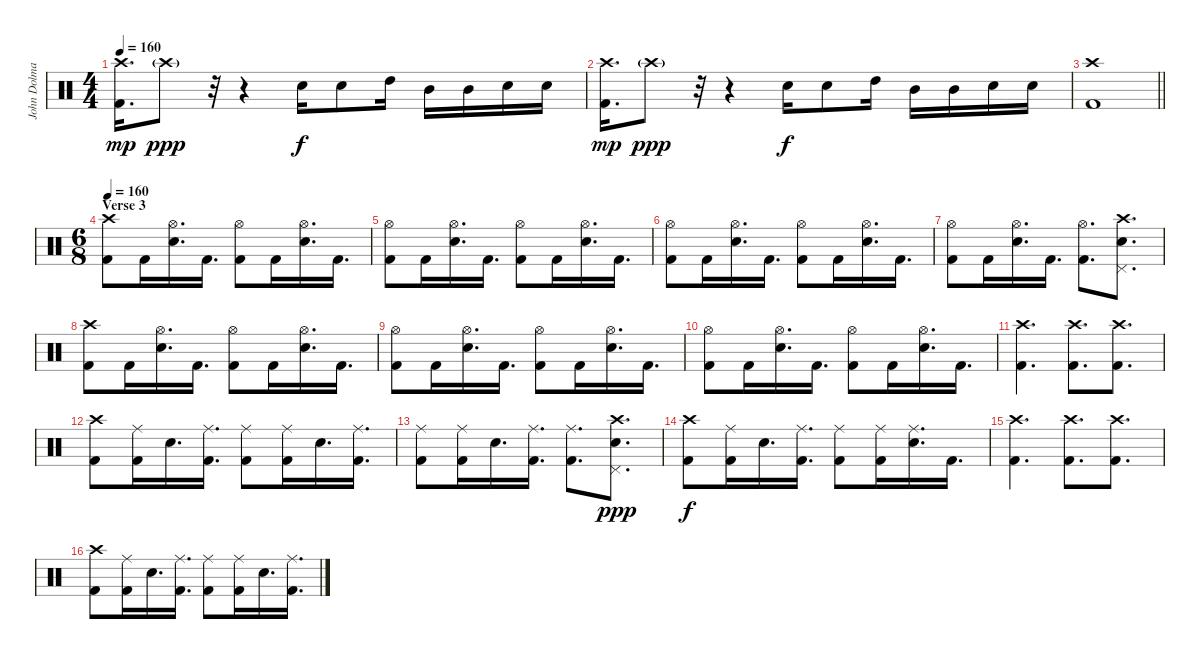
\track ("John Dolmayan" "John Dolma") {instrument percussion}
\staff {score}
\articulation defaults
\ts (4 4)
\tempo 160
\clef neutral
\ks c
("Crash high (hit)" "Kick (hit) 2").16{d dy mp} "Crash high (hit)"{g}.8{dy ppp} r.32 r.4 "Electric Snare (hit)".16{dy f} "Electric Snare (hit)".8 "High Tom (hit)".16 "Mid Tom (hit)".16 "Mid Tom (hit)".16 "Electric Snare (hit)".16 "Electric Snare (hit)".16 |
("Crash high (hit)" "Kick (hit) 2").16{d dy mp} "Crash high (hit)"{g}.8{dy ppp} r.32 r.4 "Electric Snare (hit)".16{dy f} "Electric Snare (hit)".8 "High Tom (hit)".16 "Mid Tom (hit)".16 "Mid Tom (hit)".16 "Electric Snare (hit)".16 "Electric Snare (hit)".16 |
\barLineRight lightlight
("Crash high (hit)" "Kick (hit) 2").1 |
\ts (6 8)
\section ("" "Verse 3")
\tempo 160
("Crash high (hit)" "Kick (hit) 2").8{volume 13} "Kick (hit) 2".16 ("Hi-Hat (open)" "Electric Snare (hit)").16{d} "Kick (hit) 2".16{d} ("Hi-Hat (open)" "Kick (hit) 2").8 "Kick (hit) 2".16 ("Hi-Hat (open)" "Electric Snare (hit)").16{d} "Kick (hit) 2".16{d} |
("Hi-Hat (open)" "Kick (hit) 2").8 "Kick (hit) 2".16 ("Hi-Hat (open)" "Electric Snare (hit)").16{d} "Kick (hit) 2".16{d} ("Hi-Hat (open)" "Kick (hit) 2").8 "Kick (hit) 2".16 ("Hi-Hat (open)" "Electric Snare (hit)").16{d} "Kick (hit) 2".16{d} |
("Hi-Hat (open)" "Kick (hit) 2").8 "Kick (hit) 2".16 ("Hi-Hat (open)" "Electric Snare (hit)").16{d} "Kick (hit) 2".16{d} ("Hi-Hat (open)" "Kick (hit) 2").8 "Kick (hit) 2".16 ("Hi-Hat (open)" "Electric Snare (hit)").16{d} "Kick (hit) 2".16{d} |
("Hi-Hat (open)" "Kick (hit) 2").8 "Kick (hit) 2".16 ("Hi-Hat (open)" "Electric Snare (hit)").16{d} "Kick (hit) 2".16{d} ("Hi-Hat (open)" "Kick (hit) 2").8{d} ("Crash high (hit)" "Pedal Hi-Hat (hit)" "Electric Snare (hit)").8{d} |
("Crash high (hit)" "Kick (hit) 2").8 "Kick (hit) 2".16 ("Hi-Hat (open)" "Electric Snare (hit)").16{d} "Kick (hit) 2".16{d} ("Hi-Hat (open)" "Kick (hit) 2").8 "Kick (hit) 2".16 ("Hi-Hat (open)" "Electric Snare (hit)").16{d} "Kick (hit) 2".16{d} |
("Hi-Hat (open)" "Kick (hit) 2").8 "Kick (hit) 2".16 ("Hi-Hat (open)" "Electric Snare (hit)").16{d} "Kick (hit) 2".16{d} ("Hi-Hat (open)" "Kick (hit) 2").8 "Kick (hit) 2".16 ("Hi-Hat (open)" "Electric Snare (hit)").16{d} "Kick (hit) 2".16{d} |
("Hi-Hat (open)" "Kick (hit) 2").8 "Kick (hit) 2".16 ("Hi-Hat (open)" "Electric Snare (hit)").16{d} "Kick (hit) 2".16{d} ("Hi-Hat (open)" "Kick (hit) 2").8 "Kick (hit) 2".16 ("Hi-Hat (open)" "Electric Snare (hit)").16{d} "Kick (hit) 2".16{d} |
("Crash high (hit)" "Kick (hit) 2").4{d} ("Crash high (hit)" "Kick (hit) 2").8{d} ("Crash high (hit)" "Kick (hit) 2").8{d} |
("Crash high (hit)" "Kick (hit) 2").8 ("Ride (middle)" "Kick (hit) 2").16 "Electric Snare (hit)".16{d} ("Ride (middle)" "Kick (hit) 2").16{d} ("Ride (middle)" "Kick (hit) 2").8 ("Ride (middle)" "Kick (hit) 2").16 "Electric Snare (hit)".16{d} ("Ride (middle)" "Kick (hit) 2").16{d} |
("Ride (middle)" "Kick (hit) 2").8 ("Ride (middle)" "Kick (hit) 2").16 "Electric Snare (hit)".16{d} ("Ride (middle)" "Kick (hit) 2").16{d} ("Ride (middle)" "Kick (hit) 2").8{d} ("Crash high (hit)" "Pedal Hi-Hat (hit)" "Electric Snare (hit)").8{d dy ppp} |
("Crash high (hit)" "Kick (hit) 2").8{dy f} ("Ride (middle)" "Kick (hit) 2").16 "Electric Snare (hit)".16{d} ("Ride (middle)" "Kick (hit) 2").16{d} ("Ride (middle)" "Kick (hit) 2").8 ("Ride (middle)" "Kick (hit) 2").16 ("Ride (middle)" "Electric Snare (hit)").16{d} "Kick (hit) 2".16{d} |
("Crash high (hit)" "Kick (hit) 2").4{d} ("Crash high (hit)" "Kick (hit) 2").8{d} ("Crash high (hit)" "Kick (hit) 2").8{d} |
("Crash high (hit)" "Kick (hit) 2").8 ("Ride (middle)" "Kick (hit) 2").16 "Electric Snare (hit)".16{d} ("Ride (middle)" "Kick (hit) 2").16{d} ("Ride (middle)" "Kick (hit) 2").8 ("Ride (middle)" "Kick (hit) 2").16 "Electric Snare (hit)".16{d} ("Ride (middle)" "Kick (hit) 2").16{d}
